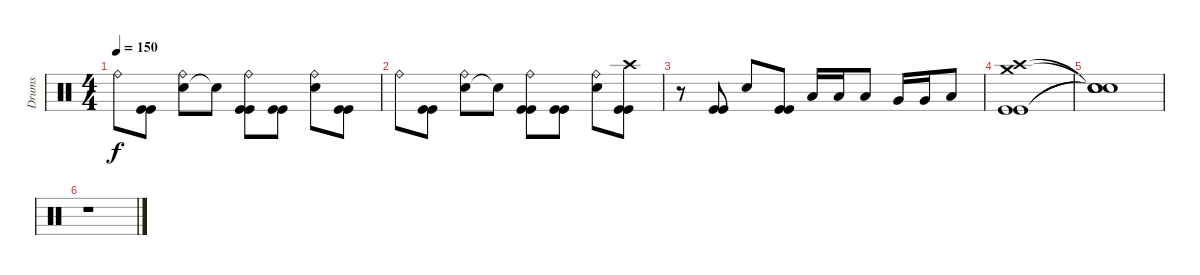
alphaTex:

\track ("Drums" "Drums") {instrument percussion}
\staff {score}
\articulation defaults
\ts (4 4)
\tempo 150
\clef neutral
\ks c "Ride (bell)".8{dy f}
("Kick (hit)" "Kick (hit)").8 ("Snare (hit) 2" "Ride (bell)").8 "Snare (hit)"{t}.8 ("Kick (hit)" "Kick (hit)" "Ride (bell)").8 ("Kick (hit)" "Kick (hit)").8 ("Snare (hit) 2" "Ride (bell)").8 ("Kick (hit)" "Kick (hit)").8 |
"Ride (bell)".8 ("Kick (hit)" "Kick (hit)").8 ("Snare (hit) 2" "Ride (bell)").8 "Snare (hit)"{t}.8 ("Kick (hit)" "Kick (hit)" "Ride (bell)").8 ("Kick (hit)" "Kick (hit)").8 ("Snare (hit) 2" "Ride (bell)").8 ("Kick (hit)" "Kick (hit)" "Crash high (hit)").8 |
r.8 ("Kick (hit)" "Kick (hit)").8 "Snare (hit) 2".8 ("Kick (hit)" "Kick (hit)").8 "Low Tom (hit)".16 "Low Tom (hit)".16 "Low Tom (hit)".8 "Very Low Tom (hit)".16 "Very Low Tom (hit)".16 "Low Floor Tom (hit)".8 |
("Kick (hit)" "Kick (hit)" "Crash high (hit)" "Crash medium (hit)").1 |
("Snare (hit)"{t} "Snare (hit)"{t} "Snare (hit)"{t} "Snare (hit)"{t}).1 |
r.1
